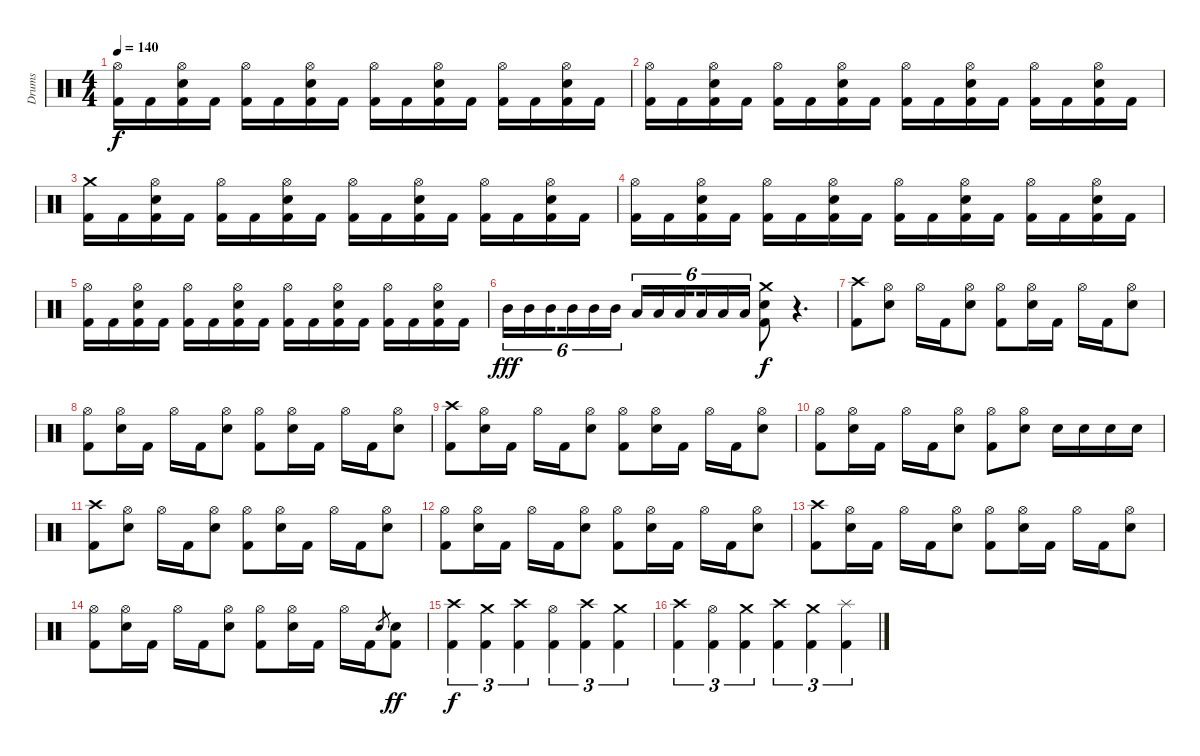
\track ("Drums" "Drums") {instrument percussion}
\staff {score}
\articulation defaults
\ts (4 4)
\tempo 140
\clef neutral
\ks c
("Hi-Hat (open)" "Kick (hit) 2").16{dy f} "Kick (hit) 2".16 ("Hi-Hat (open)" "Kick (hit) 2" "Snare (hit) 2").16 "Kick (hit) 2".16 ("Hi-Hat (open)" "Kick (hit) 2").16 "Kick (hit) 2".16 ("Hi-Hat (open)" "Kick (hit) 2" "Snare (hit) 2").16 "Kick (hit) 2".16 ("Hi-Hat (open)" "Kick (hit) 2").16 "Kick (hit) 2".16 ("Snare (hit) 2" "Kick (hit) 2" "Hi-Hat (open)").16 "Kick (hit) 2".16 ("Hi-Hat (open)" "Kick (hit) 2").16 "Kick (hit) 2".16 ("Hi-Hat (open)" "Kick (hit) 2" "Snare (hit) 2").16 "Kick (hit) 2".16 |
("Hi-Hat (open)" "Kick (hit) 2").16 "Kick (hit) 2".16 ("Hi-Hat (open)" "Kick (hit) 2" "Snare (hit) 2").16 "Kick (hit) 2".16 ("Hi-Hat (open)" "Kick (hit) 2").16 "Kick (hit) 2".16 ("Hi-Hat (open)" "Kick (hit) 2" "Snare (hit) 2").16 "Kick (hit) 2".16 ("Hi-Hat (open)" "Kick (hit) 2").16 "Kick (hit) 2".16 ("Snare (hit) 2" "Kick (hit) 2" "Hi-Hat (open)").16 "Kick (hit) 2".16 ("Hi-Hat (open)" "Kick (hit) 2").16 "Kick (hit) 2".16 ("Hi-Hat (open)" "Kick (hit) 2" "Snare (hit) 2").16 "Kick (hit) 2".16 |
("Kick (hit) 2" "Crash medium (hit)").16 "Kick (hit) 2".16 ("Snare (hit) 2" "Hi-Hat (open)" "Kick (hit) 2").16 "Kick (hit) 2".16 ("Kick (hit) 2" "Hi-Hat (open)").16 "Kick (hit) 2".16 ("Snare (hit) 2" "Hi-Hat (open)" "Kick (hit) 2").16 "Kick (hit) 2".16 ("Kick (hit) 2" "Hi-Hat (open)").16 "Kick (hit) 2".16 ("Snare (hit) 2" "Kick (hit) 2" "Hi-Hat (open)").16 "Kick (hit) 2".16 ("Hi-Hat (open)" "Kick (hit) 2").16 "Kick (hit) 2".16 ("Snare (hit) 2" "Kick (hit) 2" "Hi-Hat (open)").16 "Kick (hit) 2".16 |
("Hi-Hat (open)" "Kick (hit) 2").16 "Kick (hit) 2".16 ("Hi-Hat (open)" "Kick (hit) 2" "Snare (hit) 2").16 "Kick (hit) 2".16 ("Hi-Hat (open)" "Kick (hit) 2").16 "Kick (hit) 2".16 ("Hi-Hat (open)" "Kick (hit) 2" "Snare (hit) 2").16 "Kick (hit) 2".16 ("Hi-Hat (open)" "Kick (hit) 2").16 "Kick (hit) 2".16 ("Snare (hit) 2" "Kick (hit) 2" "Hi-Hat (open)").16 "Kick (hit) 2".16 ("Hi-Hat (open)" "Kick (hit) 2").16 "Kick (hit) 2".16 ("Hi-Hat (open)" "Kick (hit) 2" "Snare (hit) 2").16 "Kick (hit) 2".16 |
("Hi-Hat (open)" "Kick (hit) 2").16 "Kick (hit) 2".16 ("Hi-Hat (open)" "Kick (hit) 2" "Snare (hit) 2").16 "Kick (hit) 2".16 ("Hi-Hat (open)" "Kick (hit) 2").16 "Kick (hit) 2".16 ("Hi-Hat (open)" "Kick (hit) 2" "Snare (hit) 2").16 "Kick (hit) 2".16 ("Hi-Hat (open)" "Kick (hit) 2").16 "Kick (hit) 2".16 ("Snare (hit) 2" "Kick (hit) 2" "Hi-Hat (open)").16 "Kick (hit) 2".16 ("Hi-Hat (open)" "Kick (hit) 2").16 "Kick (hit) 2".16 ("Hi-Hat (open)" "Kick (hit) 2" "Snare (hit) 2").16 "Kick (hit) 2".16 |
"Mid Tom (hit)".16{tu (6 4) dy fff} "Mid Tom (hit)".16{tu (6 4)} "Mid Tom (hit)".16{tu (6 4) beam splitsecondary} "Mid Tom (hit)".16{tu (6 4)} "Mid Tom (hit)".16{tu (6 4)} "Mid Tom (hit)".16{tu (6 4)} "Low Tom (hit)".16{tu (6 4)} "Low Tom (hit)".16{tu (6 4)} "Low Tom (hit)".16{tu (6 4) beam splitsecondary} "Low Tom (hit)".16{tu (6 4)} "Low Tom (hit)".16{tu (6 4)} "Low Tom (hit)".16{tu (6 4)} ("Crash medium (hit)" "Snare (hit) 2" "Kick (hit) 2").8{dy f} r.4{d} |
("Kick (hit) 2" "Crash high (hit)").8 ("Snare (hit) 2" "Hi-Hat (open)").8 "Hi-Hat (open)".16 "Kick (hit) 2".16 ("Snare (hit) 2" "Hi-Hat (open)").8 ("Kick (hit) 2" "Hi-Hat (open)").8 ("Hi-Hat (open)" "Snare (hit) 2").16 "Kick (hit) 2".16 "Hi-Hat (open)".16 "Kick (hit) 2".16 ("Hi-Hat (open)" "Snare (hit) 2").8 |
("Hi-Hat (open)" "Kick (hit) 2").8 ("Hi-Hat (open)" "Snare (hit) 2").16 "Kick (hit) 2".16 "Hi-Hat (open)".16 "Kick (hit) 2".16 ("Hi-Hat (open)" "Snare (hit) 2").8 ("Hi-Hat (open)" "Kick (hit) 2").8 ("Snare (hit) 2" "Hi-Hat (open)").16 "Kick (hit) 2".16 "Hi-Hat (open)".16 "Kick (hit) 2".16 ("Snare (hit) 2" "Hi-Hat (open)").8 |
("Kick (hit) 2" "Crash high (hit)").8 ("Hi-Hat (open)" "Snare (hit) 2").16 "Kick (hit) 2".16 "Hi-Hat (open)".16 "Kick (hit) 2".16 ("Hi-Hat (open)" "Snare (hit) 2").8 ("Kick (hit) 2" "Hi-Hat (open)").8 ("Snare (hit) 2" "Hi-Hat (open)").16 "Kick (hit) 2".16 "Hi-Hat (open)".16 "Kick (hit) 2".16 ("Snare (hit) 2" "Hi-Hat (open)").8 |
("Kick (hit) 2" "Hi-Hat (open)").8 ("Snare (hit) 2" "Hi-Hat (open)").16 "Kick (hit) 2".16 "Hi-Hat (open)".16 "Kick (hit) 2".16 ("Hi-Hat (open)" "Snare (hit) 2").8 ("Hi-Hat (open)" "Kick (hit) 2").8 ("Hi-Hat (open)" "Snare (hit) 2").8 "Snare (hit) 2".16 "Snare (hit) 2".16 "Snare (hit) 2".16 "Snare (hit) 2".16 |
("Kick (hit) 2" "Crash high (hit)").8 ("Snare (hit) 2" "Hi-Hat (open)").8 "Hi-Hat (open)".16 "Kick (hit) 2".16 ("Snare (hit) 2" "Hi-Hat (open)").8 ("Kick (hit) 2" "Hi-Hat (open)").8 ("Hi-Hat (open)" "Snare (hit) 2").16 "Kick (hit) 2".16 "Hi-Hat (open)".16 "Kick (hit) 2".16 ("Hi-Hat (open)" "Snare (hit) 2").8 |
("Hi-Hat (open)" "Kick (hit) 2").8 ("Hi-Hat (open)" "Snare (hit) 2").16 "Kick (hit) 2".16 "Hi-Hat (open)".16 "Kick (hit) 2".16 ("Hi-Hat (open)" "Snare (hit) 2").8 ("Hi-Hat (open)" "Kick (hit) 2").8 ("Snare (hit) 2" "Hi-Hat (open)").16 "Kick (hit) 2".16 "Hi-Hat (open)".16 "Kick (hit) 2".16 ("Snare (hit) 2" "Hi-Hat (open)").8 |
("Kick (hit) 2" "Crash high (hit)").8 ("Hi-Hat (open)" "Snare (hit) 2").16 "Kick (hit) 2".16 "Hi-Hat (open)".16 "Kick (hit) 2".16 ("Hi-Hat (open)" "Snare (hit) 2").8 ("Kick (hit) 2" "Hi-Hat (open)").8 ("Snare (hit) 2" "Hi-Hat (open)").16 "Kick (hit) 2".16 "Hi-Hat (open)".16 "Kick (hit) 2".16 ("Snare (hit) 2" "Hi-Hat (open)").8 |
("Hi-Hat (open)" "Kick (hit) 2").8 ("Hi-Hat (open)" "Snare (hit) 2").16 "Kick (hit) 2".16 "Hi-Hat (open)".16 "Kick (hit) 2".16 ("Snare (hit) 2" "Hi-Hat (open)").8 ("Hi-Hat (open)" "Kick (hit) 2").8 ("Hi-Hat (open)" "Snare (hit) 2").16 "Kick (hit) 2".16 "Hi-Hat (open)".16 "Kick (hit) 2".16 "Snare (hit) 2".8{gr} ("Kick (hit) 2" "Snare (hit) 2").8{dy ff} |
("Crash high (hit)" "Kick (hit) 2").4{tu (3 2) dy f} ("Crash medium (hit)" "Kick (hit) 2").4{tu (3 2)} ("Crash high (hit)" "Kick (hit) 2").4{tu (3 2)} ("Hi-Hat (open)" "Kick (hit) 2").4{tu (3 2)} ("Crash high (hit)" "Kick (hit) 2").4{tu (3 2)} ("Crash medium (hit)" "Kick (hit) 2").4{tu (3 2)} |
("Crash high (hit)" "Kick (hit) 2").4{tu (3 2)} ("Hi-Hat (open)" "Kick (hit) 2").4{tu (3 2)} ("Crash medium (hit)" "Kick (hit) 2").4{tu (3 2)} ("Crash high (hit)" "Kick (hit) 2").4{tu (3 2)} ("Crash medium (hit)" "Kick (hit) 2").4{tu (3 2)} ("Splash (hit)" "Kick (hit) 2").4{tu (3 2)}
